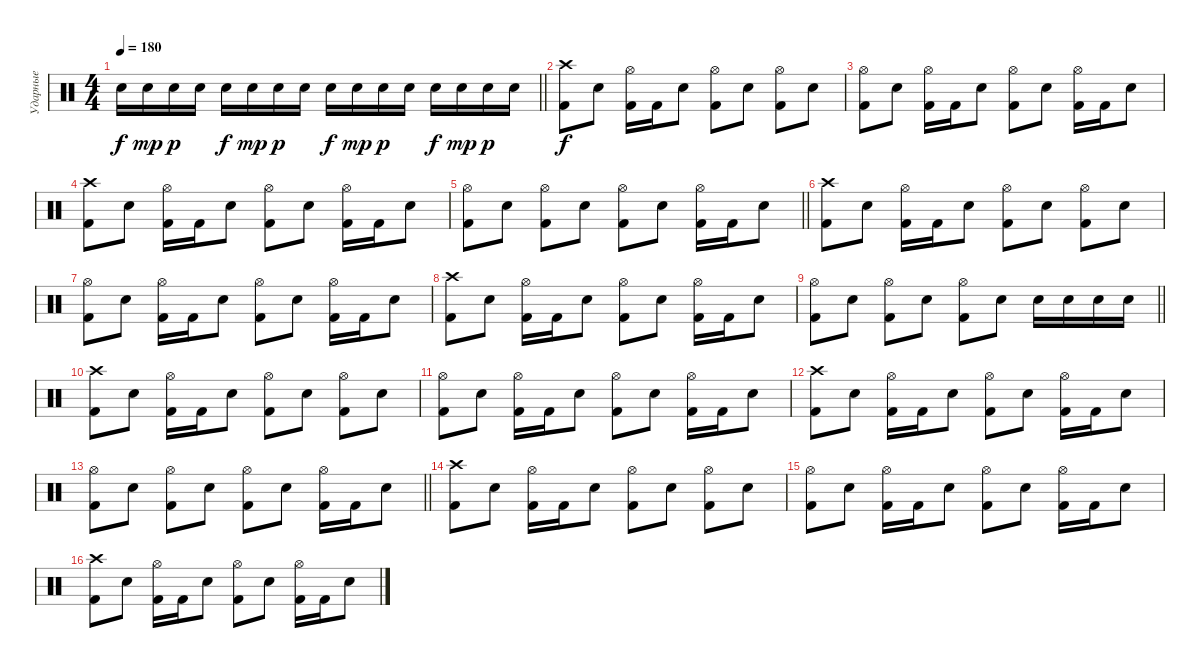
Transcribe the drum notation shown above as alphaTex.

\track ("Ударные" "Ударные") {instrument percussion}
\staff {score}
\articulation defaults
\ts (4 4)
\tempo 180
\clef neutral
\barLineRight lightlight
\ks c "Electric Snare (hit)".16{dy f} "Electric Snare (hit)".16{dy mp} "Electric Snare (hit)".16{dy p} "Electric Snare (hit)".16 "Electric Snare (hit)".16{dy f} "Electric Snare (hit)".16{dy mp} "Electric Snare (hit)".16{dy p} "Electric Snare (hit)".16 "Electric Snare (hit)".16{dy f} "Electric Snare (hit)".16{dy mp} "Electric Snare (hit)".16{dy p} "Electric Snare (hit)".16 "Electric Snare (hit)".16{dy f} "Electric Snare (hit)".16{dy mp} "Electric Snare (hit)".16{dy p} "Electric Snare (hit)".16
|
\section ("" "")
("Crash high (hit)" "Kick (hit) 2").8{dy f} "Electric Snare (hit)".8 ("Hi-Hat (open)" "Kick (hit) 2").16 "Kick (hit) 2".16 "Electric Snare (hit)".8 ("Hi-Hat (open)" "Kick (hit) 2").8 "Electric Snare (hit)".8 ("Hi-Hat (open)" "Kick (hit) 2").8 "Electric Snare (hit)".8 |
("Hi-Hat (open)" "Kick (hit) 2").8 "Electric Snare (hit)".8 ("Hi-Hat (open)" "Kick (hit) 2").16 "Kick (hit) 2".16 "Electric Snare (hit)".8 ("Hi-Hat (open)" "Kick (hit) 2").8 "Electric Snare (hit)".8 ("Hi-Hat (open)" "Kick (hit) 2").16 "Kick (hit) 2".16 "Electric Snare (hit)".8 |
("Crash high (hit)" "Kick (hit) 2").8 "Electric Snare (hit)".8 ("Hi-Hat (open)" "Kick (hit) 2").16 "Kick (hit) 2".16 "Electric Snare (hit)".8 ("Hi-Hat (open)" "Kick (hit) 2").8 "Electric Snare (hit)".8 ("Hi-Hat (open)" "Kick (hit) 2").16 "Kick (hit) 2".16 "Electric Snare (hit)".8 |
\barLineRight lightlight
("Hi-Hat (open)" "Kick (hit) 2").8 "Electric Snare (hit)".8 ("Hi-Hat (open)" "Kick (hit) 2").8 "Electric Snare (hit)".8 ("Hi-Hat (open)" "Kick (hit) 2").8 "Electric Snare (hit)".8 ("Hi-Hat (open)" "Kick (hit) 2").16 "Kick (hit) 2".16 "Electric Snare (hit)".8 |
("Crash high (hit)" "Kick (hit) 2").8 "Electric Snare (hit)".8 ("Hi-Hat (open)" "Kick (hit) 2").16 "Kick (hit) 2".16 "Electric Snare (hit)".8 ("Hi-Hat (open)" "Kick (hit) 2").8 "Electric Snare (hit)".8 ("Hi-Hat (open)" "Kick (hit) 2").8 "Electric Snare (hit)".8 |
("Hi-Hat (open)" "Kick (hit) 2").8 "Electric Snare (hit)".8 ("Hi-Hat (open)" "Kick (hit) 2").16 "Kick (hit) 2".16 "Electric Snare (hit)".8 ("Hi-Hat (open)" "Kick (hit) 2").8 "Electric Snare (hit)".8 ("Hi-Hat (open)" "Kick (hit) 2").16 "Kick (hit) 2".16 "Electric Snare (hit)".8 |
("Crash high (hit)" "Kick (hit) 2").8 "Electric Snare (hit)".8 ("Hi-Hat (open)" "Kick (hit) 2").16 "Kick (hit) 2".16 "Electric Snare (hit)".8 ("Hi-Hat (open)" "Kick (hit) 2").8 "Electric Snare (hit)".8 ("Hi-Hat (open)" "Kick (hit) 2").16 "Kick (hit) 2".16 "Electric Snare (hit)".8 |
\barLineRight lightlight
("Hi-Hat (open)" "Kick (hit) 2").8 "Electric Snare (hit)".8 ("Hi-Hat (open)" "Kick (hit) 2").8 "Electric Snare (hit)".8 ("Hi-Hat (open)" "Kick (hit) 2").8 "Electric Snare (hit)".8 "Electric Snare (hit)".16 "Electric Snare (hit)".16 "Electric Snare (hit)".16 "Electric Snare (hit)".16 |
("Crash high (hit)" "Kick (hit) 2").8 "Electric Snare (hit)".8 ("Hi-Hat (open)" "Kick (hit) 2").16 "Kick (hit) 2".16 "Electric Snare (hit)".8 ("Hi-Hat (open)" "Kick (hit) 2").8 "Electric Snare (hit)".8 ("Hi-Hat (open)" "Kick (hit) 2").8 "Electric Snare (hit)".8 |
("Hi-Hat (open)" "Kick (hit) 2").8 "Electric Snare (hit)".8 ("Hi-Hat (open)" "Kick (hit) 2").16 "Kick (hit) 2".16 "Electric Snare (hit)".8 ("Hi-Hat (open)" "Kick (hit) 2").8 "Electric Snare (hit)".8 ("Hi-Hat (open)" "Kick (hit) 2").16 "Kick (hit) 2".16 "Electric Snare (hit)".8 |
("Crash high (hit)" "Kick (hit) 2").8 "Electric Snare (hit)".8 ("Hi-Hat (open)" "Kick (hit) 2").16 "Kick (hit) 2".16 "Electric Snare (hit)".8 ("Hi-Hat (open)" "Kick (hit) 2").8 "Electric Snare (hit)".8 ("Hi-Hat (open)" "Kick (hit) 2").16 "Kick (hit) 2".16 "Electric Snare (hit)".8 |
\barLineRight lightlight
("Hi-Hat (open)" "Kick (hit) 2").8 "Electric Snare (hit)".8 ("Hi-Hat (open)" "Kick (hit) 2").8 "Electric Snare (hit)".8 ("Hi-Hat (open)" "Kick (hit) 2").8 "Electric Snare (hit)".8 ("Hi-Hat (open)" "Kick (hit) 2").16 "Kick (hit) 2".16 "Electric Snare (hit)".8 |
("Crash high (hit)" "Kick (hit) 2").8 "Electric Snare (hit)".8 ("Hi-Hat (open)" "Kick (hit) 2").16 "Kick (hit) 2".16 "Electric Snare (hit)".8 ("Hi-Hat (open)" "Kick (hit) 2").8 "Electric Snare (hit)".8 ("Hi-Hat (open)" "Kick (hit) 2").8 "Electric Snare (hit)".8 |
("Hi-Hat (open)" "Kick (hit) 2").8 "Electric Snare (hit)".8 ("Hi-Hat (open)" "Kick (hit) 2").16 "Kick (hit) 2".16 "Electric Snare (hit)".8 ("Hi-Hat (open)" "Kick (hit) 2").8 "Electric Snare (hit)".8 ("Hi-Hat (open)" "Kick (hit) 2").16 "Kick (hit) 2".16 "Electric Snare (hit)".8 |
("Crash high (hit)" "Kick (hit) 2").8 "Electric Snare (hit)".8 ("Hi-Hat (open)" "Kick (hit) 2").16 "Kick (hit) 2".16 "Electric Snare (hit)".8 ("Hi-Hat (open)" "Kick (hit) 2").8 "Electric Snare (hit)".8 ("Hi-Hat (open)" "Kick (hit) 2").16 "Kick (hit) 2".16 "Electric Snare (hit)".8
